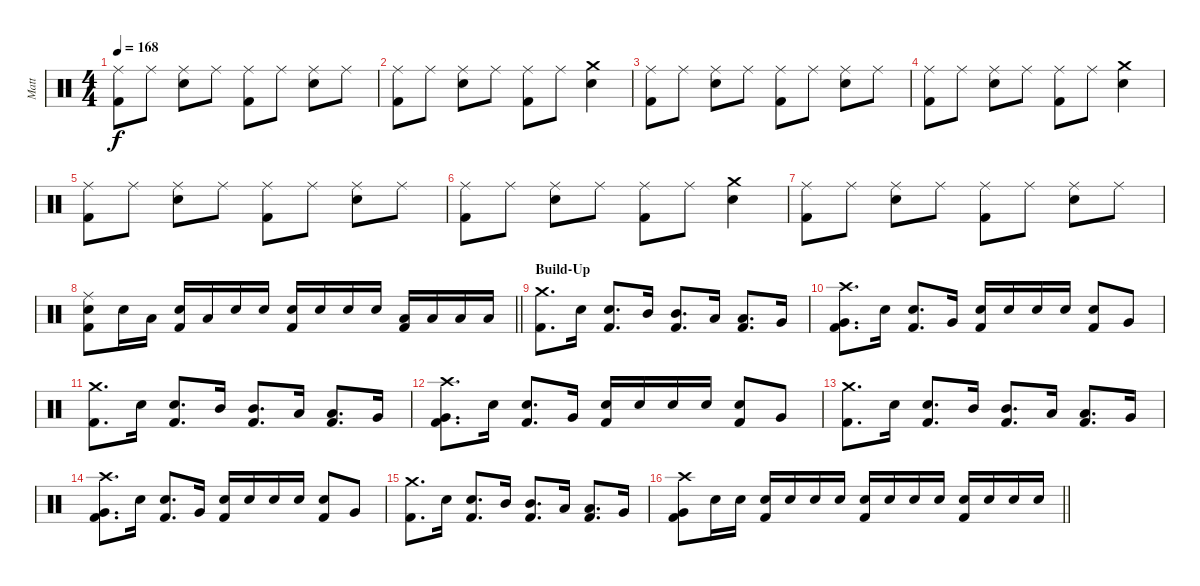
\track ("Matt" "Matt") {instrument percussion}
\staff {score}
\articulation defaults
\ts (4 4)
\tempo 168
\clef neutral
\ks c
("Ride (middle)" "Kick (hit) 2").8{dy f} "Ride (middle)".8 ("Ride (middle)" "Electric Snare (hit)").8 "Ride (middle)".8 ("Ride (middle)" "Kick (hit) 2").8 "Ride (middle)".8 ("Ride (middle)" "Electric Snare (hit)").8 "Ride (middle)".8 |
("Ride (middle)" "Kick (hit) 2").8 "Ride (middle)".8 ("Ride (middle)" "Electric Snare (hit)").8 "Ride (middle)".8 ("Ride (middle)" "Kick (hit) 2").8 "Ride (middle)".8 ("Crash medium (hit)" "Electric Snare (hit)").4 |
("Ride (middle)" "Kick (hit) 2").8 "Ride (middle)".8 ("Ride (middle)" "Electric Snare (hit)").8 "Ride (middle)".8 ("Ride (middle)" "Kick (hit) 2").8 "Ride (middle)".8 ("Ride (middle)" "Electric Snare (hit)").8 "Ride (middle)".8 |
("Ride (middle)" "Kick (hit) 2").8 "Ride (middle)".8 ("Ride (middle)" "Electric Snare (hit)").8 "Ride (middle)".8 ("Ride (middle)" "Kick (hit) 2").8 "Ride (middle)".8 ("Crash medium (hit)" "Electric Snare (hit)").4 |
("Ride (middle)" "Kick (hit) 2").8 "Ride (middle)".8 ("Ride (middle)" "Electric Snare (hit)").8 "Ride (middle)".8 ("Ride (middle)" "Kick (hit) 2").8 "Ride (middle)".8 ("Ride (middle)" "Electric Snare (hit)").8 "Ride (middle)".8 |
("Ride (middle)" "Kick (hit) 2").8 "Ride (middle)".8 ("Ride (middle)" "Electric Snare (hit)").8 "Ride (middle)".8 ("Ride (middle)" "Kick (hit) 2").8 "Ride (middle)".8 ("Crash medium (hit)" "Electric Snare (hit)").4 |
("Ride (middle)" "Kick (hit) 2").8 "Ride (middle)".8 ("Ride (middle)" "Electric Snare (hit)").8 "Ride (middle)".8 ("Ride (middle)" "Kick (hit) 2").8 "Ride (middle)".8 ("Ride (middle)" "Electric Snare (hit)").8 "Ride (middle)".8 |
\barLineRight lightlight
("Ride (middle)" "Electric Snare (hit)" "Kick (hit) 2").8 "Electric Snare (hit)".16 "Low Tom (hit)".16 ("Electric Snare (hit)" "Kick (hit) 2").16 "Low Tom (hit)".16 "Electric Snare (hit)".16 "Electric Snare (hit)".16 ("Electric Snare (hit)" "Kick (hit) 2").16 "Electric Snare (hit)".16 "Electric Snare (hit)".16 "Electric Snare (hit)".16 ("Low Tom (hit)" "Kick (hit) 2").16 "Low Tom (hit)".16 "Low Tom (hit)".16 "Low Tom (hit)".16 |
\section ("" "Build-Up")
("Crash medium (hit)" "Kick (hit) 2").8{d} "Electric Snare (hit)".16 ("Electric Snare (hit)" "Kick (hit) 2").8{d} "Mid Tom (hit)".16 ("Mid Tom (hit)" "Kick (hit) 2").8{d} "Low Tom (hit)".16 ("Low Tom (hit)" "Kick (hit) 2").8{d} "Very Low Tom (hit)".16 |
("Crash high (hit)" "Very Low Tom (hit)" "Kick (hit) 2").8{d} "Electric Snare (hit)".16 ("Electric Snare (hit)" "Kick (hit) 2").8{d} "Very Low Tom (hit)".16 ("Electric Snare (hit)" "Kick (hit) 2").16 "Electric Snare (hit)".16 "Electric Snare (hit)".16 "Electric Snare (hit)".16 ("Electric Snare (hit)" "Kick (hit) 2").8 "Very Low Tom (hit)".8 |
("Crash medium (hit)" "Kick (hit) 2").8{d} "Electric Snare (hit)".16 ("Electric Snare (hit)" "Kick (hit) 2").8{d} "Mid Tom (hit)".16 ("Mid Tom (hit)" "Kick (hit) 2").8{d} "Low Tom (hit)".16 ("Low Tom (hit)" "Kick (hit) 2").8{d} "Very Low Tom (hit)".16 |
("Crash high (hit)" "Very Low Tom (hit)" "Kick (hit) 2").8{d} "Electric Snare (hit)".16 ("Electric Snare (hit)" "Kick (hit) 2").8{d} "Very Low Tom (hit)".16 ("Electric Snare (hit)" "Kick (hit) 2").16 "Electric Snare (hit)".16 "Electric Snare (hit)".16 "Electric Snare (hit)".16 ("Electric Snare (hit)" "Kick (hit) 2").8 "Very Low Tom (hit)".8 |
("Crash medium (hit)" "Kick (hit) 2").8{d} "Electric Snare (hit)".16 ("Electric Snare (hit)" "Kick (hit) 2").8{d} "Mid Tom (hit)".16 ("Mid Tom (hit)" "Kick (hit) 2").8{d} "Low Tom (hit)".16 ("Low Tom (hit)" "Kick (hit) 2").8{d} "Very Low Tom (hit)".16 |
("Crash high (hit)" "Very Low Tom (hit)" "Kick (hit) 2").8{d} "Electric Snare (hit)".16 ("Electric Snare (hit)" "Kick (hit) 2").8{d} "Very Low Tom (hit)".16 ("Electric Snare (hit)" "Kick (hit) 2").16 "Electric Snare (hit)".16 "Electric Snare (hit)".16 "Electric Snare (hit)".16 ("Electric Snare (hit)" "Kick (hit) 2").8 "Very Low Tom (hit)".8 |
("Crash medium (hit)" "Kick (hit) 2").8{d} "Electric Snare (hit)".16 ("Electric Snare (hit)" "Kick (hit) 2").8{d} "Mid Tom (hit)".16 ("Mid Tom (hit)" "Kick (hit) 2").8{d} "Low Tom (hit)".16 ("Low Tom (hit)" "Kick (hit) 2").8{d} "Very Low Tom (hit)".16 |
\barLineRight lightlight
("Crash high (hit)" "Very Low Tom (hit)" "Kick (hit) 2").8 "Electric Snare (hit)".16 "Electric Snare (hit)".16 ("Electric Snare (hit)" "Kick (hit) 2").16 "Electric Snare (hit)".16 "Electric Snare (hit)".16 "Electric Snare (hit)".16 ("Electric Snare (hit)" "Kick (hit) 2").16 "Electric Snare (hit)".16 "Electric Snare (hit)".16 "Electric Snare (hit)".16 ("Electric Snare (hit)" "Kick (hit) 2").16 "Electric Snare (hit)".16 "Electric Snare (hit)".16 "Electric Snare (hit)".16
